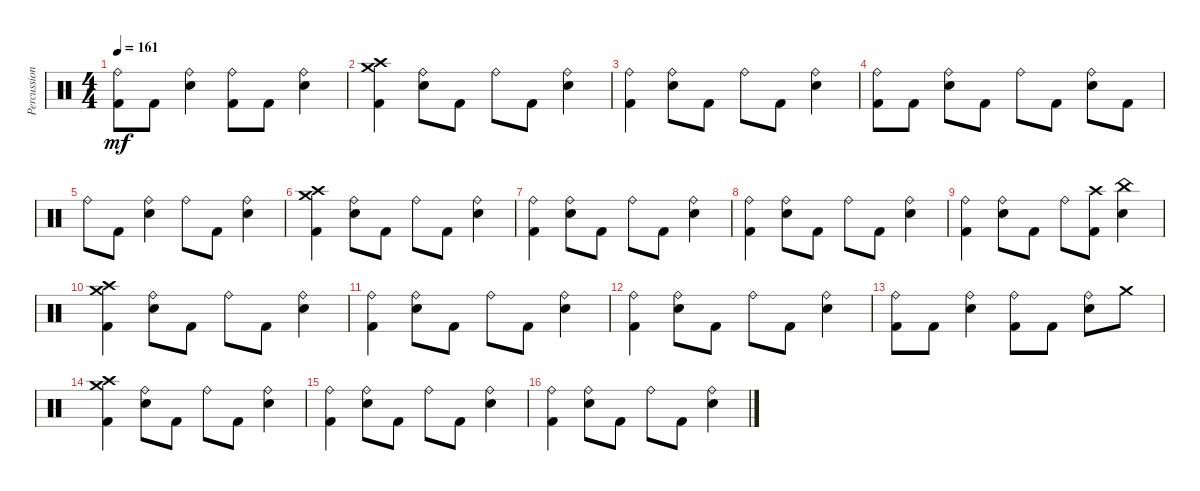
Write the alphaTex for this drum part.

\track ("Percussion" "Percussion") {instrument percussion}
\staff {score}
\articulation defaults
\ts (4 4)
\tempo 161
\clef neutral
\ks c
("Ride (bell)" "Kick (hit) 2").8{dy mf} "Kick (hit) 2".8 ("Ride (bell)" "Electric Snare (hit)").4 ("Ride (bell)" "Kick (hit) 2").8 "Kick (hit) 2".8 ("Ride (bell)" "Electric Snare (hit)").4 |
("Crash medium (hit)" "Crash high (hit)" "Kick (hit) 2").4 ("Ride (bell)" "Electric Snare (hit)").8 "Kick (hit) 2".8 "Ride (bell)".8 "Kick (hit) 2".8 ("Ride (bell)" "Electric Snare (hit)").4 |
("Ride (bell)" "Kick (hit) 2").4 ("Ride (bell)" "Electric Snare (hit)").8 "Kick (hit) 2".8 "Ride (bell)".8 "Kick (hit) 2".8 ("Ride (bell)" "Electric Snare (hit)").4 |
("Ride (bell)" "Kick (hit) 2").8 "Kick (hit) 2".8 ("Ride (bell)" "Electric Snare (hit)").8 "Kick (hit) 2".8 "Ride (bell)".8 "Kick (hit) 2".8 ("Ride (bell)" "Electric Snare (hit)").8 "Kick (hit) 2".8 |
"Ride (bell)".8 "Kick (hit) 2".8 ("Ride (bell)" "Electric Snare (hit)").4 "Ride (bell)".8 "Kick (hit) 2".8 ("Ride (bell)" "Electric Snare (hit)").4 |
("Crash medium (hit)" "Crash high (hit)" "Kick (hit) 2").4 ("Ride (bell)" "Electric Snare (hit)").8 "Kick (hit) 2".8 "Ride (bell)".8 "Kick (hit) 2".8 ("Ride (bell)" "Electric Snare (hit)").4 |
("Ride (bell)" "Kick (hit) 2").4 ("Ride (bell)" "Electric Snare (hit)").8 "Kick (hit) 2".8 "Ride (bell)".8 "Kick (hit) 2".8 ("Ride (bell)" "Electric Snare (hit)").4 |
("Ride (bell)" "Kick (hit) 2").4 ("Ride (bell)" "Electric Snare (hit)").8 "Kick (hit) 2".8 "Ride (bell)".8 "Kick (hit) 2".8 ("Ride (bell)" "Electric Snare (hit)").4 |
("Ride (bell)" "Kick (hit) 2").4 ("Ride (bell)" "Electric Snare (hit)").8 "Kick (hit) 2".8 "Ride (bell)".8 ("Crash high (hit)" "Kick (hit) 2").8 ("China (hit)" "Electric Snare (hit)").4 |
("Crash medium (hit)" "Crash high (hit)" "Kick (hit) 2").4 ("Ride (bell)" "Electric Snare (hit)").8 "Kick (hit) 2".8 "Ride (bell)".8 "Kick (hit) 2".8 ("Ride (bell)" "Electric Snare (hit)").4 |
("Ride (bell)" "Kick (hit) 2").4 ("Ride (bell)" "Electric Snare (hit)").8 "Kick (hit) 2".8 "Ride (bell)".8 "Kick (hit) 2".8 ("Ride (bell)" "Electric Snare (hit)").4 |
("Ride (bell)" "Kick (hit) 2").4 ("Ride (bell)" "Electric Snare (hit)").8 "Kick (hit) 2".8 "Ride (bell)".8 "Kick (hit) 2".8 ("Ride (bell)" "Electric Snare (hit)").4 |
("Ride (bell)" "Kick (hit) 2").8 "Kick (hit) 2".8 ("Ride (bell)" "Electric Snare (hit)").4 ("Ride (bell)" "Kick (hit) 2").8 "Kick (hit) 2".8 ("Ride (bell)" "Electric Snare (hit)").8 "Crash medium (hit)".8 |
("Crash medium (hit)" "Crash high (hit)" "Kick (hit) 2").4 ("Ride (bell)" "Electric Snare (hit)").8 "Kick (hit) 2".8 "Ride (bell)".8 "Kick (hit) 2".8 ("Ride (bell)" "Electric Snare (hit)").4 |
("Ride (bell)" "Kick (hit) 2").4 ("Ride (bell)" "Electric Snare (hit)").8 "Kick (hit) 2".8 "Ride (bell)".8 "Kick (hit) 2".8 ("Ride (bell)" "Electric Snare (hit)").4 |
("Ride (bell)" "Kick (hit) 2").4 ("Ride (bell)" "Electric Snare (hit)").8 "Kick (hit) 2".8 "Ride (bell)".8 "Kick (hit) 2".8 ("Ride (bell)" "Electric Snare (hit)").4
